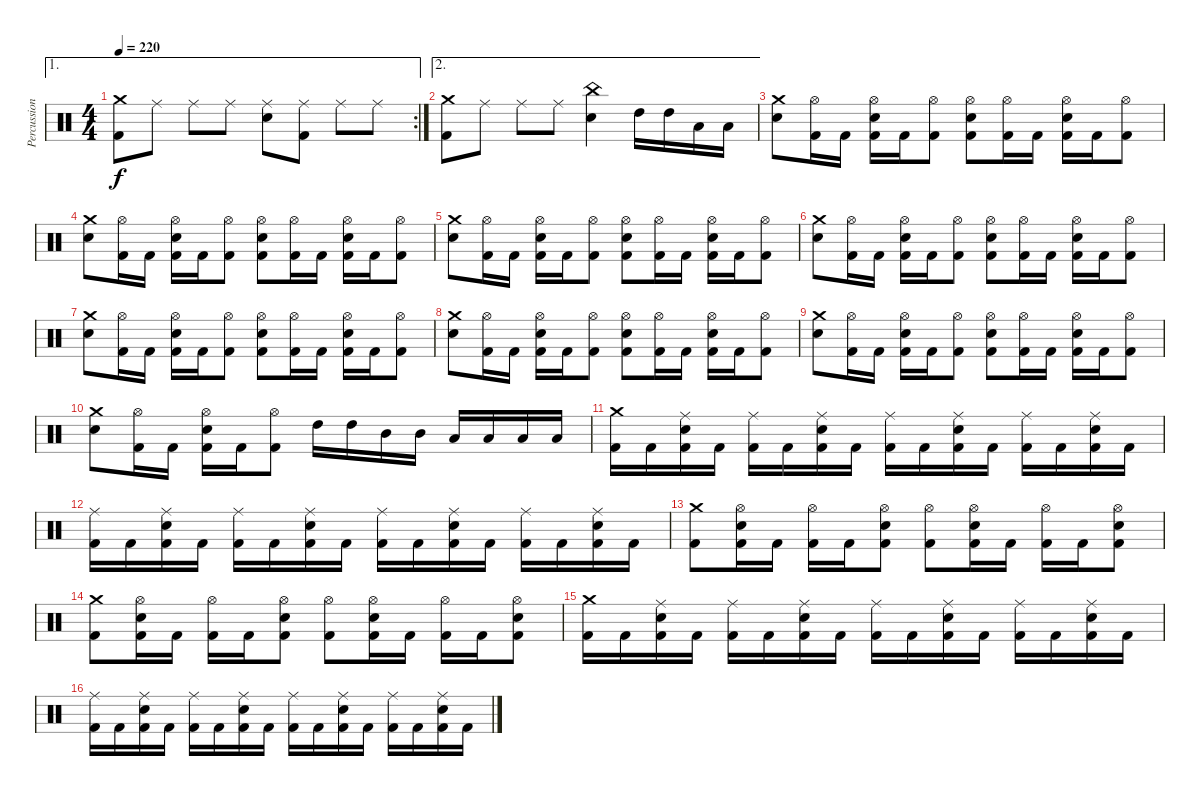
\track ("Percussion" "Percussion") {instrument percussion}
\staff {score}
\articulation defaults
\ae 1
\rc 2
\ts (4 4)
\tempo 220
\clef neutral
\ks c
("Crash medium (hit)" "Kick (hit) 2").8{dy f} "Ride (middle)".8 "Ride (middle)".8 "Ride (middle)".8 ("Snare (hit) 2" "Ride (middle)").8 ("Kick (hit) 2" "Ride (middle)").8 "Ride (middle)".8 "Ride (middle)".8 |
\ae 2
("Kick (hit) 2" "Crash medium (hit)").8 "Ride (middle)".8 "Ride (middle)".8 "Ride (middle)".8 ("China (hit)" "Snare (hit) 2").4 "High Tom (hit)".16 "High Tom (hit)".16 "Low Tom (hit)".16 "Low Tom (hit)".16 |
("Crash medium (hit)" "Snare (hit) 2").8 ("Hi-Hat (open)" "Kick (hit) 2").16 "Kick (hit) 2".16 ("Hi-Hat (open)" "Snare (hit) 2" "Kick (hit) 2").16 "Kick (hit) 2".16 ("Hi-Hat (open)" "Kick (hit) 2").8 ("Hi-Hat (open)" "Snare (hit) 2" "Kick (hit) 2").8 ("Hi-Hat (open)" "Kick (hit) 2").16 "Kick (hit) 2".16 ("Hi-Hat (open)" "Snare (hit) 2" "Kick (hit) 2").16 "Kick (hit) 2".16 ("Hi-Hat (open)" "Kick (hit) 2").8 |
("Crash medium (hit)" "Snare (hit) 2").8 ("Hi-Hat (open)" "Kick (hit) 2").16 "Kick (hit) 2".16 ("Hi-Hat (open)" "Snare (hit) 2" "Kick (hit) 2").16 "Kick (hit) 2".16 ("Hi-Hat (open)" "Kick (hit) 2").8 ("Hi-Hat (open)" "Snare (hit) 2" "Kick (hit) 2").8 ("Hi-Hat (open)" "Kick (hit) 2").16 "Kick (hit) 2".16 ("Hi-Hat (open)" "Snare (hit) 2" "Kick (hit) 2").16 "Kick (hit) 2".16 ("Hi-Hat (open)" "Kick (hit) 2").8 |
("Crash medium (hit)" "Snare (hit) 2").8 ("Hi-Hat (open)" "Kick (hit) 2").16 "Kick (hit) 2".16 ("Hi-Hat (open)" "Snare (hit) 2" "Kick (hit) 2").16 "Kick (hit) 2".16 ("Hi-Hat (open)" "Kick (hit) 2").8 ("Hi-Hat (open)" "Snare (hit) 2" "Kick (hit) 2").8 ("Hi-Hat (open)" "Kick (hit) 2").16 "Kick (hit) 2".16 ("Hi-Hat (open)" "Snare (hit) 2" "Kick (hit) 2").16 "Kick (hit) 2".16 ("Hi-Hat (open)" "Kick (hit) 2").8 |
("Crash medium (hit)" "Snare (hit) 2").8 ("Hi-Hat (open)" "Kick (hit) 2").16 "Kick (hit) 2".16 ("Hi-Hat (open)" "Snare (hit) 2" "Kick (hit) 2").16 "Kick (hit) 2".16 ("Hi-Hat (open)" "Kick (hit) 2").8 ("Hi-Hat (open)" "Snare (hit) 2" "Kick (hit) 2").8 ("Hi-Hat (open)" "Kick (hit) 2").16 "Kick (hit) 2".16 ("Hi-Hat (open)" "Snare (hit) 2" "Kick (hit) 2").16 "Kick (hit) 2".16 ("Hi-Hat (open)" "Kick (hit) 2").8 |
("Crash medium (hit)" "Snare (hit) 2").8 ("Hi-Hat (open)" "Kick (hit) 2").16 "Kick (hit) 2".16 ("Hi-Hat (open)" "Snare (hit) 2" "Kick (hit) 2").16 "Kick (hit) 2".16 ("Hi-Hat (open)" "Kick (hit) 2").8 ("Hi-Hat (open)" "Snare (hit) 2" "Kick (hit) 2").8 ("Hi-Hat (open)" "Kick (hit) 2").16 "Kick (hit) 2".16 ("Hi-Hat (open)" "Snare (hit) 2" "Kick (hit) 2").16 "Kick (hit) 2".16 ("Hi-Hat (open)" "Kick (hit) 2").8 |
("Crash medium (hit)" "Snare (hit) 2").8 ("Hi-Hat (open)" "Kick (hit) 2").16 "Kick (hit) 2".16 ("Hi-Hat (open)" "Snare (hit) 2" "Kick (hit) 2").16 "Kick (hit) 2".16 ("Hi-Hat (open)" "Kick (hit) 2").8 ("Hi-Hat (open)" "Snare (hit) 2" "Kick (hit) 2").8 ("Hi-Hat (open)" "Kick (hit) 2").16 "Kick (hit) 2".16 ("Hi-Hat (open)" "Snare (hit) 2" "Kick (hit) 2").16 "Kick (hit) 2".16 ("Hi-Hat (open)" "Kick (hit) 2").8 |
("Crash medium (hit)" "Snare (hit) 2").8 ("Hi-Hat (open)" "Kick (hit) 2").16 "Kick (hit) 2".16 ("Hi-Hat (open)" "Snare (hit) 2" "Kick (hit) 2").16 "Kick (hit) 2".16 ("Hi-Hat (open)" "Kick (hit) 2").8 ("Hi-Hat (open)" "Snare (hit) 2" "Kick (hit) 2").8 ("Hi-Hat (open)" "Kick (hit) 2").16 "Kick (hit) 2".16 ("Hi-Hat (open)" "Snare (hit) 2" "Kick (hit) 2").16 "Kick (hit) 2".16 ("Hi-Hat (open)" "Kick (hit) 2").8 |
("Crash medium (hit)" "Snare (hit) 2").8 ("Hi-Hat (open)" "Kick (hit) 2").16 "Kick (hit) 2".16 ("Hi-Hat (open)" "Snare (hit) 2" "Kick (hit) 2").16 "Kick (hit) 2".16 ("Hi-Hat (open)" "Kick (hit) 2").8 "High Tom (hit)".16 "High Tom (hit)".16 "Mid Tom (hit)".16 "Mid Tom (hit)".16 "Low Tom (hit)".16 "Low Tom (hit)".16 "Low Tom (hit)".16 "Low Tom (hit)".16 |
("Crash medium (hit)" "Kick (hit) 2").16 "Kick (hit) 2".16 ("Ride (middle)" "Snare (hit) 2" "Kick (hit) 2").16 "Kick (hit) 2".16 ("Ride (middle)" "Kick (hit) 2").16 "Kick (hit) 2".16 ("Ride (middle)" "Snare (hit) 2" "Kick (hit) 2").16 "Kick (hit) 2".16 ("Ride (middle)" "Kick (hit) 2").16 "Kick (hit) 2".16 ("Ride (middle)" "Snare (hit) 2" "Kick (hit) 2").16 "Kick (hit) 2".16 ("Ride (middle)" "Kick (hit) 2").16 "Kick (hit) 2".16 ("Ride (middle)" "Snare (hit) 2" "Kick (hit) 2").16 "Kick (hit) 2".16 |
("Ride (middle)" "Kick (hit) 2").16 "Kick (hit) 2".16 ("Ride (middle)" "Snare (hit) 2" "Kick (hit) 2").16 "Kick (hit) 2".16 ("Ride (middle)" "Kick (hit) 2").16 "Kick (hit) 2".16 ("Ride (middle)" "Snare (hit) 2" "Kick (hit) 2").16 "Kick (hit) 2".16 ("Ride (middle)" "Kick (hit) 2").16 "Kick (hit) 2".16 ("Ride (middle)" "Snare (hit) 2" "Kick (hit) 2").16 "Kick (hit) 2".16 ("Ride (middle)" "Kick (hit) 2").16 "Kick (hit) 2".16 ("Ride (middle)" "Snare (hit) 2" "Kick (hit) 2").16 "Kick (hit) 2".16 |
("Crash medium (hit)" "Kick (hit) 2").8 ("Hi-Hat (open)" "Snare (hit) 2" "Kick (hit) 2").16 "Kick (hit) 2".16 ("Hi-Hat (open)" "Kick (hit) 2").16 "Kick (hit) 2".16 ("Hi-Hat (open)" "Snare (hit) 2" "Kick (hit) 2").8 ("Hi-Hat (open)" "Kick (hit) 2").8 ("Hi-Hat (open)" "Snare (hit) 2" "Kick (hit) 2").16 "Kick (hit) 2".16 ("Hi-Hat (open)" "Kick (hit) 2").16 "Kick (hit) 2".16 ("Hi-Hat (open)" "Snare (hit) 2" "Kick (hit) 2").8 |
("Crash medium (hit)" "Kick (hit) 2").8 ("Hi-Hat (open)" "Snare (hit) 2" "Kick (hit) 2").16 "Kick (hit) 2".16 ("Hi-Hat (open)" "Kick (hit) 2").16 "Kick (hit) 2".16 ("Hi-Hat (open)" "Snare (hit) 2" "Kick (hit) 2").8 ("Hi-Hat (open)" "Kick (hit) 2").8 ("Hi-Hat (open)" "Snare (hit) 2" "Kick (hit) 2").16 "Kick (hit) 2".16 ("Hi-Hat (open)" "Kick (hit) 2").16 "Kick (hit) 2".16 ("Hi-Hat (open)" "Snare (hit) 2" "Kick (hit) 2").8 |
("Crash medium (hit)" "Kick (hit) 2").16 "Kick (hit) 2".16 ("Ride (middle)" "Snare (hit) 2" "Kick (hit) 2").16 "Kick (hit) 2".16 ("Ride (middle)" "Kick (hit) 2").16 "Kick (hit) 2".16 ("Ride (middle)" "Snare (hit) 2" "Kick (hit) 2").16 "Kick (hit) 2".16 ("Ride (middle)" "Kick (hit) 2").16 "Kick (hit) 2".16 ("Ride (middle)" "Snare (hit) 2" "Kick (hit) 2").16 "Kick (hit) 2".16 ("Ride (middle)" "Kick (hit) 2").16 "Kick (hit) 2".16 ("Ride (middle)" "Snare (hit) 2" "Kick (hit) 2").16 "Kick (hit) 2".16 |
("Ride (middle)" "Kick (hit) 2").16 "Kick (hit) 2".16 ("Ride (middle)" "Snare (hit) 2" "Kick (hit) 2").16 "Kick (hit) 2".16 ("Ride (middle)" "Kick (hit) 2").16 "Kick (hit) 2".16 ("Ride (middle)" "Snare (hit) 2" "Kick (hit) 2").16 "Kick (hit) 2".16 ("Ride (middle)" "Kick (hit) 2").16 "Kick (hit) 2".16 ("Ride (middle)" "Snare (hit) 2" "Kick (hit) 2").16 "Kick (hit) 2".16 ("Ride (middle)" "Kick (hit) 2").16 "Kick (hit) 2".16 ("Ride (middle)" "Snare (hit) 2" "Kick (hit) 2").16 "Kick (hit) 2".16
